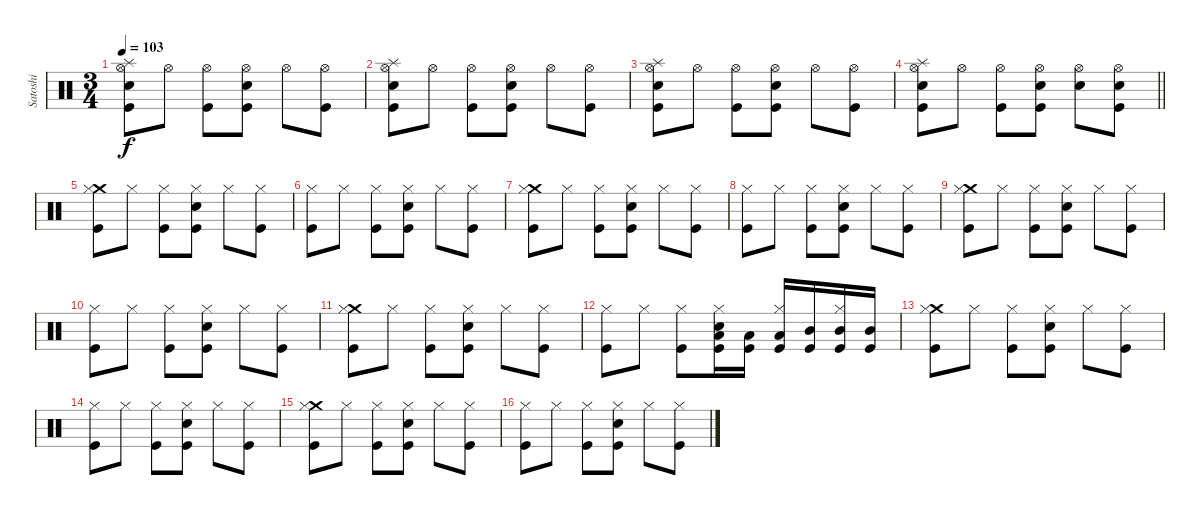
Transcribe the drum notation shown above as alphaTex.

\track ("Satoshi" "Satoshi") {instrument percussion}
\staff {score}
\articulation defaults
\ts (3 4)
\tempo 103
\clef neutral
\ks c
("Splash (hit)" "Hi-Hat (open)" "Electric Snare (hit)" "Kick (hit)").8{dy f} "Hi-Hat (open)".8 ("Hi-Hat (open)" "Kick (hit)").8 ("Hi-Hat (open)" "Electric Snare (hit)" "Kick (hit)").8 "Hi-Hat (open)".8 ("Hi-Hat (open)" "Kick (hit)").8 |
("Splash (hit)" "Hi-Hat (open)" "Electric Snare (hit)" "Kick (hit)").8 "Hi-Hat (open)".8 ("Hi-Hat (open)" "Kick (hit)").8 ("Hi-Hat (open)" "Electric Snare (hit)" "Kick (hit)").8 "Hi-Hat (open)".8 ("Hi-Hat (open)" "Kick (hit)").8 |
("Splash (hit)" "Hi-Hat (open)" "Electric Snare (hit)" "Kick (hit)").8 "Hi-Hat (open)".8 ("Hi-Hat (open)" "Kick (hit)").8 ("Hi-Hat (open)" "Electric Snare (hit)" "Kick (hit)").8 "Hi-Hat (open)".8 ("Hi-Hat (open)" "Kick (hit)").8 |
\barLineRight lightlight
("Splash (hit)" "Hi-Hat (open)" "Electric Snare (hit)" "Kick (hit)").8 "Hi-Hat (open)".8 ("Hi-Hat (open)" "Kick (hit)").8 ("Hi-Hat (open)" "Electric Snare (hit)" "Kick (hit)").8 ("Hi-Hat (open)" "Electric Snare (hit)").8 ("Hi-Hat (open)" "Electric Snare (hit)" "Kick (hit)").8 |
("Crash medium (hit)" "Hi-Hat (closed)" "Kick (hit)").8 "Hi-Hat (closed)".8 ("Hi-Hat (closed)" "Kick (hit)").8 ("Hi-Hat (closed)" "Electric Snare (hit)" "Kick (hit)").8 "Hi-Hat (closed)".8 ("Hi-Hat (closed)" "Kick (hit)").8 |
("Hi-Hat (closed)" "Kick (hit)").8 "Hi-Hat (closed)".8 ("Hi-Hat (closed)" "Kick (hit)").8 ("Hi-Hat (closed)" "Electric Snare (hit)" "Kick (hit)").8 "Hi-Hat (closed)".8 ("Hi-Hat (closed)" "Kick (hit)").8 |
("Crash medium (hit)" "Hi-Hat (closed)" "Kick (hit)").8 "Hi-Hat (closed)".8 ("Hi-Hat (closed)" "Kick (hit)").8 ("Hi-Hat (closed)" "Electric Snare (hit)" "Kick (hit)").8 "Hi-Hat (closed)".8 ("Hi-Hat (closed)" "Kick (hit)").8 |
("Hi-Hat (closed)" "Kick (hit)").8 "Hi-Hat (closed)".8 ("Hi-Hat (closed)" "Kick (hit)").8 ("Hi-Hat (closed)" "Electric Snare (hit)" "Kick (hit)").8 "Hi-Hat (closed)".8 ("Hi-Hat (closed)" "Kick (hit)").8 |
("Crash medium (hit)" "Hi-Hat (closed)" "Kick (hit)").8 "Hi-Hat (closed)".8 ("Hi-Hat (closed)" "Kick (hit)").8 ("Hi-Hat (closed)" "Electric Snare (hit)" "Kick (hit)").8 "Hi-Hat (closed)".8 ("Hi-Hat (closed)" "Kick (hit)").8 |
("Hi-Hat (closed)" "Kick (hit)").8 "Hi-Hat (closed)".8 ("Hi-Hat (closed)" "Kick (hit)").8 ("Hi-Hat (closed)" "Electric Snare (hit)" "Kick (hit)").8 "Hi-Hat (closed)".8 ("Hi-Hat (closed)" "Kick (hit)").8 |
("Crash medium (hit)" "Hi-Hat (closed)" "Kick (hit)").8 "Hi-Hat (closed)".8 ("Hi-Hat (closed)" "Kick (hit)").8 ("Hi-Hat (closed)" "Electric Snare (hit)" "Kick (hit)").8 "Hi-Hat (closed)".8 ("Hi-Hat (closed)" "Kick (hit)").8 |
("Hi-Hat (closed)" "Kick (hit)").8 "Hi-Hat (closed)".8 ("Hi-Hat (closed)" "Kick (hit)").8 ("Low Tom (hit)" "Hi-Hat (closed)" "Electric Snare (hit)" "Kick (hit)").16 ("Low Tom (hit)" "Kick (hit)").16 ("Low Tom (hit)" "Hi-Hat (closed)" "Kick (hit)").16 ("Mid Tom (hit)" "Kick (hit)").16 ("Mid Tom (hit)" "Hi-Hat (closed)" "Kick (hit)").16 ("Mid Tom (hit)" "Kick (hit)").16 |
("Crash medium (hit)" "Hi-Hat (closed)" "Kick (hit)").8 "Hi-Hat (closed)".8 ("Hi-Hat (closed)" "Kick (hit)").8 ("Hi-Hat (closed)" "Electric Snare (hit)" "Kick (hit)").8 "Hi-Hat (closed)".8 ("Hi-Hat (closed)" "Kick (hit)").8 |
("Hi-Hat (closed)" "Kick (hit)").8 "Hi-Hat (closed)".8 ("Hi-Hat (closed)" "Kick (hit)").8 ("Hi-Hat (closed)" "Electric Snare (hit)" "Kick (hit)").8 "Hi-Hat (closed)".8 ("Hi-Hat (closed)" "Kick (hit)").8 |
("Crash medium (hit)" "Hi-Hat (closed)" "Kick (hit)").8 "Hi-Hat (closed)".8 ("Hi-Hat (closed)" "Kick (hit)").8 ("Hi-Hat (closed)" "Electric Snare (hit)" "Kick (hit)").8 "Hi-Hat (closed)".8 ("Hi-Hat (closed)" "Kick (hit)").8 |
("Hi-Hat (closed)" "Kick (hit)").8 "Hi-Hat (closed)".8 ("Hi-Hat (closed)" "Kick (hit)").8 ("Hi-Hat (closed)" "Electric Snare (hit)" "Kick (hit)").8 "Hi-Hat (closed)".8 ("Hi-Hat (closed)" "Kick (hit)").8
